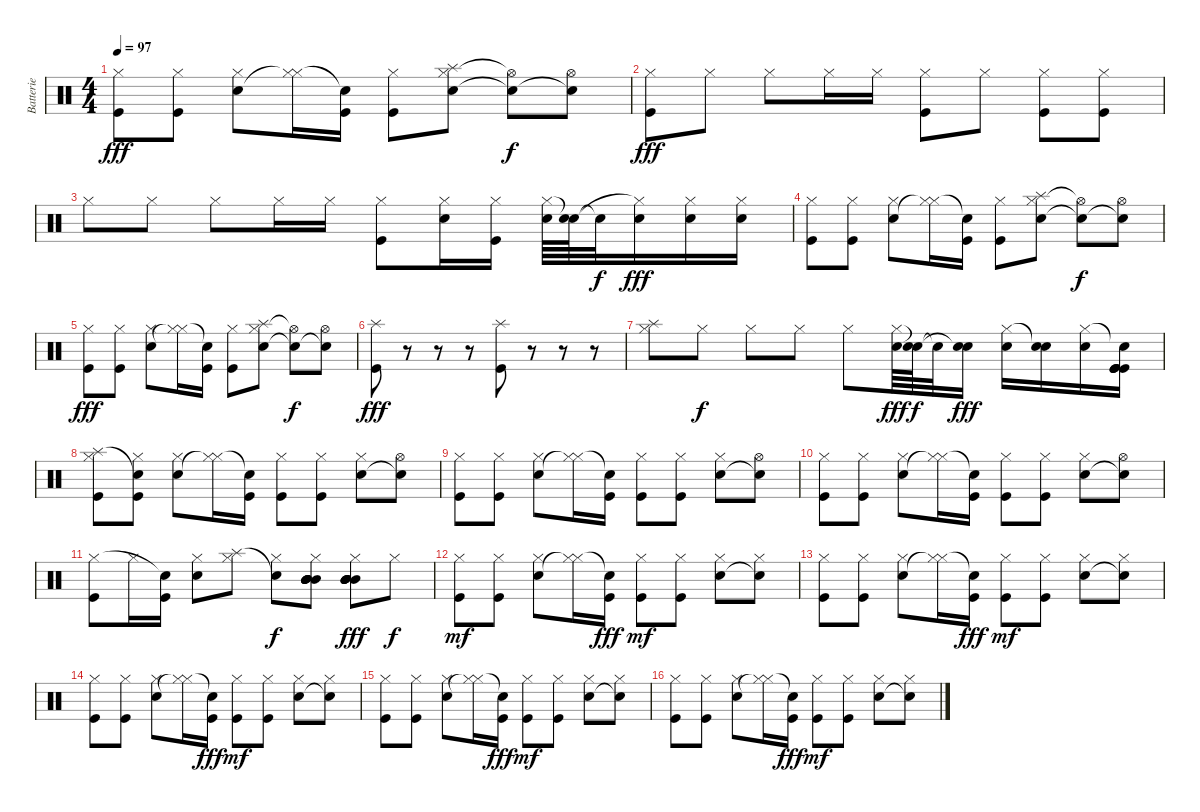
\track ("Batterie" "Batterie") {instrument percussion}
\staff {score}
\articulation defaults
\ts (4 4)
\tempo 97
\clef neutral
\ks c
("Kick (hit)" "Hi-Hat (closed)").8{dy fff} ("Kick (hit)" "Hi-Hat (closed)").8 ("Snare (hit) 2" "Hi-Hat (closed)").8 ("Hi-Hat (closed)"{t} "Hi-Hat (closed)").16 ("Kick (hit)" "Snare (hit)"{t}).16 ("Kick (hit)" "Hi-Hat (closed)").8 ("Snare (hit) 2" "Hi-Hat (closed)" "Splash (hit)").8 ("Snare (hit) 2"{t} "Hi-Hat (open)"{t}).8{dy f} ("Snare (hit)"{t} "Hi-Hat (open)").8 |
("Kick (hit)" "Hi-Hat (closed)").8{dy fff} "Hi-Hat (closed)".8 "Hi-Hat (closed)".8 "Hi-Hat (closed)".16 "Hi-Hat (closed)".16 ("Kick (hit)" "Hi-Hat (closed)").8 "Hi-Hat (closed)".8 ("Kick (hit)" "Hi-Hat (closed)").8 ("Kick (hit)" "Hi-Hat (closed)").8 |
"Hi-Hat (closed)".8 "Hi-Hat (closed)".8 "Hi-Hat (closed)".8 "Hi-Hat (closed)".16 "Hi-Hat (closed)".16 ("Kick (hit)" "Hi-Hat (closed)").8 ("Snare (hit) 2" "Hi-Hat (closed)").16 ("Kick (hit)" "Hi-Hat (closed)").16 ("Snare (hit) 2" "Hi-Hat (closed)").64 ("Snare (hit) 2" "Snare (hit)"{t}).64 "Snare (hit)"{t}.32{dy f} ("Snare (hit) 2" "Hi-Hat (closed)"{t}).16{dy fff} ("Snare (hit) 2" "Hi-Hat (closed)").16 ("Snare (hit) 2" "Hi-Hat (closed)").16 |
("Kick (hit)" "Hi-Hat (closed)").8 ("Kick (hit)" "Hi-Hat (closed)").8 ("Snare (hit) 2" "Hi-Hat (closed)").8 ("Hi-Hat (closed)"{t} "Hi-Hat (closed)").16 ("Kick (hit)" "Snare (hit)"{t}).16 ("Kick (hit)" "Hi-Hat (closed)").8 ("Snare (hit) 2" "Hi-Hat (closed)" "Splash (hit)").8 ("Snare (hit) 2"{t} "Hi-Hat (open)"{t}).8{dy f} ("Snare (hit)"{t} "Hi-Hat (open)").8 |
("Kick (hit)" "Hi-Hat (closed)").8{dy fff} ("Kick (hit)" "Hi-Hat (closed)").8 ("Snare (hit) 2" "Hi-Hat (closed)").8 ("Hi-Hat (closed)"{t} "Hi-Hat (closed)").16 ("Kick (hit)" "Snare (hit)"{t}).16 ("Kick (hit)" "Hi-Hat (closed)").8 ("Snare (hit) 2" "Hi-Hat (closed)" "Splash (hit)").8 ("Snare (hit) 2"{t} "Hi-Hat (open)"{t}).8{dy f} ("Snare (hit)"{t} "Hi-Hat (open)").8 |
("Kick (hit)" "Splash (hit)").8{dy fff} r.8 r.8 r.8 ("Kick (hit)" "Splash (hit)").8 r.8 r.8 r.8 |
("Splash (hit)" "Hi-Hat (closed)").8 "Hi-Hat (closed)".8{dy f} "Hi-Hat (closed)".8 "Hi-Hat (closed)".8 "Hi-Hat (closed)".8 ("Snare (hit) 2" "Hi-Hat (closed)").64{dy fff} ("Snare (hit) 2" "Snare (hit)"{t}).64{dy f} "Snare (hit)"{t}.32 ("Snare (hit) 2" "Snare (hit)"{t}).16{dy fff} ("Snare (hit) 2" "Hi-Hat (closed)").16 ("Snare (hit) 2" "Snare (hit)"{t}).16 ("Snare (hit) 2" "Hi-Hat (closed)").16 ("Kick (hit)" "Snare (hit)"{t} "Kick (hit)" "Kick (hit)" "Kick (hit)").16 |
("Kick (hit)" "Hi-Hat (closed)" "Splash (hit)").8 ("Kick (hit)" "Hi-Hat (closed)" "Snare (hit)"{t}).8 ("Snare (hit) 2" "Hi-Hat (closed)").8 ("Hi-Hat (closed)"{t} "Hi-Hat (closed)").16 ("Kick (hit)" "Snare (hit)"{t}).16 ("Kick (hit)" "Hi-Hat (closed)").8 ("Kick (hit)" "Hi-Hat (closed)").8 ("Snare (hit) 2" "Hi-Hat (closed)").8 ("Snare (hit)"{t} "Hi-Hat (open)").8 |
("Kick (hit)" "Hi-Hat (closed)").8 ("Kick (hit)" "Hi-Hat (closed)").8 ("Snare (hit) 2" "Hi-Hat (closed)").8 ("Hi-Hat (closed)"{t} "Hi-Hat (closed)").16 ("Kick (hit)" "Snare (hit)"{t}).16 ("Kick (hit)" "Hi-Hat (closed)").8 ("Kick (hit)" "Hi-Hat (closed)").8 ("Snare (hit) 2" "Hi-Hat (closed)").8 ("Snare (hit)"{t} "Hi-Hat (open)").8 |
("Kick (hit)" "Hi-Hat (closed)").8 ("Kick (hit)" "Hi-Hat (closed)").8 ("Snare (hit) 2" "Hi-Hat (closed)").8 ("Hi-Hat (closed)"{t} "Hi-Hat (closed)").16 ("Kick (hit)" "Snare (hit)"{t}).16 ("Kick (hit)" "Hi-Hat (closed)").8 ("Kick (hit)" "Hi-Hat (closed)").8 ("Snare (hit) 2" "Hi-Hat (closed)").8 ("Snare (hit)"{t} "Hi-Hat (open)").8 |
("Kick (hit)" "Hi-Hat (closed)").8 "Hi-Hat (closed)".16 ("Kick (hit)" "Snare (hit)"{t}).16 ("Snare (hit) 2" "Hi-Hat (closed)").8 ("Splash (hit)" "Hi-Hat (closed)").8 ("Snare (hit)"{t} "Hi-Hat (closed)").8{dy f} ("Mid Tom (hit)" "Hi-Hat (closed)" "Mid Tom (hit)" "Mid Tom (hit)" "Mid Tom (hit)" "Mid Tom (hit)").8 ("Mid Tom (hit)" "Hi-Hat (closed)" "Mid Tom (hit)" "Mid Tom (hit)" "Mid Tom (hit)" "Mid Tom (hit)").8{dy fff} "Hi-Hat (closed)".8{dy f} |
("Kick (hit)" "Hi-Hat (closed)").8{dy mf} ("Kick (hit)" "Hi-Hat (closed)").8 ("Snare (hit) 2" "Hi-Hat (closed)").8 ("Hi-Hat (closed)"{t} "Hi-Hat (closed)").16 ("Kick (hit)" "Snare (hit)"{t}).16{dy fff} ("Kick (hit)" "Hi-Hat (closed)").8{dy mf} ("Kick (hit)" "Hi-Hat (closed)").8 ("Snare (hit) 2" "Hi-Hat (closed)").8 ("Snare (hit)"{t} "Hi-Hat (closed)").8 |
("Kick (hit)" "Hi-Hat (closed)").8 ("Kick (hit)" "Hi-Hat (closed)").8 ("Snare (hit) 2" "Hi-Hat (closed)").8 ("Hi-Hat (closed)"{t} "Hi-Hat (closed)").16 ("Kick (hit)" "Snare (hit)"{t}).16{dy fff} ("Kick (hit)" "Hi-Hat (closed)").8{dy mf} ("Kick (hit)" "Hi-Hat (closed)").8 ("Snare (hit) 2" "Hi-Hat (closed)").8 ("Snare (hit)"{t} "Hi-Hat (closed)").8 |
("Kick (hit)" "Hi-Hat (closed)").8 ("Kick (hit)" "Hi-Hat (closed)").8 ("Snare (hit) 2" "Hi-Hat (closed)").8 ("Hi-Hat (closed)"{t} "Hi-Hat (closed)").16 ("Kick (hit)" "Snare (hit)"{t}).16{dy fff} ("Kick (hit)" "Hi-Hat (closed)").8{dy mf} ("Kick (hit)" "Hi-Hat (closed)").8 ("Snare (hit) 2" "Hi-Hat (closed)").8 ("Snare (hit)"{t} "Hi-Hat (closed)").8 |
("Kick (hit)" "Hi-Hat (closed)").8 ("Kick (hit)" "Hi-Hat (closed)").8 ("Snare (hit) 2" "Hi-Hat (closed)").8 ("Hi-Hat (closed)"{t} "Hi-Hat (closed)").16 ("Kick (hit)" "Snare (hit)"{t}).16{dy fff} ("Kick (hit)" "Hi-Hat (closed)").8{dy mf} ("Kick (hit)" "Hi-Hat (closed)").8 ("Snare (hit) 2" "Hi-Hat (closed)").8 ("Snare (hit)"{t} "Hi-Hat (closed)").8 |
("Kick (hit)" "Hi-Hat (closed)").8 ("Kick (hit)" "Hi-Hat (closed)").8 ("Snare (hit) 2" "Hi-Hat (closed)").8 ("Hi-Hat (closed)"{t} "Hi-Hat (closed)").16 ("Kick (hit)" "Snare (hit)"{t}).16{dy fff} ("Kick (hit)" "Hi-Hat (closed)").8{dy mf} ("Kick (hit)" "Hi-Hat (closed)").8 ("Snare (hit) 2" "Hi-Hat (closed)").8 ("Snare (hit)"{t} "Hi-Hat (closed)").8
